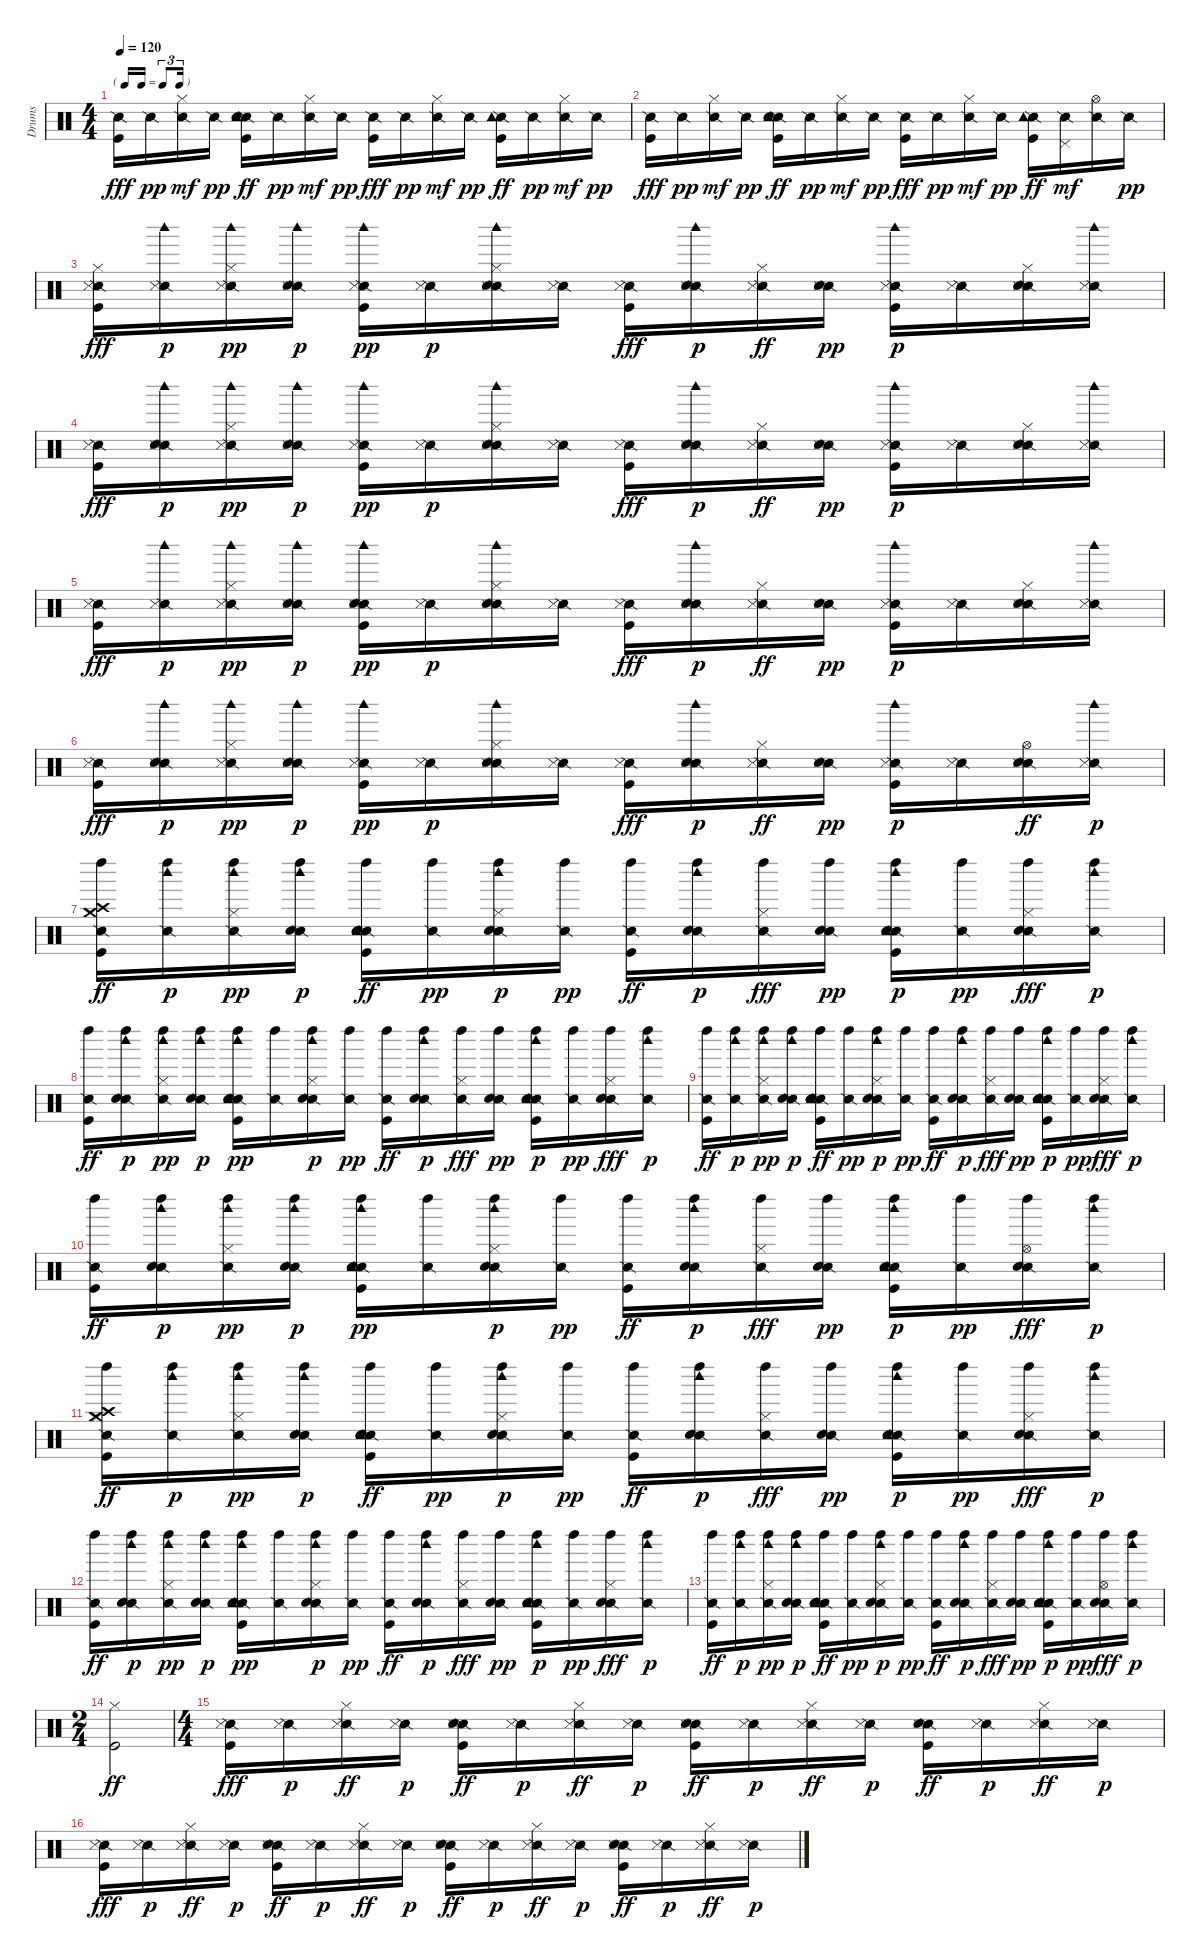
\track ("Drums" "Drums") {instrument percussion}
\staff {score}
\articulation defaults
\ts (4 4)
\tf triplet16th
\tempo 120
\clef neutral
\ks c
("Snare (side stick) 2" "Kick (hit)").16{dy fff} "Snare (side stick) 2".16{dy pp} ("Snare (side stick) 2" "Hi-Hat (closed)").16{dy mf} "Snare (side stick) 2".16{dy pp} ("Snare (side stick) 2" "Kick (hit)" "Hand Clap (hit)" "Tambourine (hit)").16{dy ff} "Snare (side stick) 2".16{dy pp} ("Snare (side stick) 2" "Hi-Hat (closed)").16{dy mf} "Snare (side stick) 2".16{dy pp} ("Snare (side stick) 2" "Kick (hit)").16{dy fff} "Snare (side stick) 2".16{dy pp} ("Snare (side stick) 2" "Hi-Hat (closed)").16{dy mf} "Snare (side stick) 2".16{dy pp} ("Snare (side stick) 2" "Kick (hit)" "Tambourine (hit)").16{dy ff} "Snare (side stick) 2".16{dy pp} ("Snare (side stick) 2" "Hi-Hat (closed)").16{dy mf} "Snare (side stick) 2".16{dy pp} |
("Snare (side stick) 2" "Kick (hit)").16{dy fff} "Snare (side stick) 2".16{dy pp} ("Snare (side stick) 2" "Hi-Hat (closed)").16{dy mf} "Snare (side stick) 2".16{dy pp} ("Snare (side stick) 2" "Kick (hit)" "Hand Clap (hit)" "Tambourine (hit)").16{dy ff} "Snare (side stick) 2".16{dy pp} ("Snare (side stick) 2" "Hi-Hat (closed)").16{dy mf} "Snare (side stick) 2".16{dy pp} ("Snare (side stick) 2" "Kick (hit)").16{dy fff} "Snare (side stick) 2".16{dy pp} ("Snare (side stick) 2" "Hi-Hat (closed)").16{dy mf} "Snare (side stick) 2".16{dy pp} ("Snare (side stick) 2" "Kick (hit)" "Tambourine (hit)").16{dy ff} ("Snare (side stick) 2" "Pedal Hi-Hat (hit)").16{dy mf} ("Snare (side stick) 2" "Hi-Hat (open)").16 "Snare (side stick) 2".16{dy pp} |
("Snare (side stick) 2" "Metronome (hit)" "Kick (hit)" "Hi-Hat (closed)").16{dy fff} ("Snare (side stick) 2" "Metronome (hit)" "Woodblock high (hit)").16{dy p} ("Snare (side stick) 2" "Metronome (hit)" "Hi-Hat (closed)" "Woodblock high (hit)").16{dy pp} ("Snare (side stick) 2" "Metronome (hit)" "Hand Clap (hit)" "Woodblock high (hit)").16{dy p} ("Snare (side stick) 2" "Metronome (hit)" "Kick (hit)" "Woodblock high (hit)").16{dy pp} ("Snare (side stick) 2" "Metronome (hit)").16{dy p} ("Snare (side stick) 2" "Metronome (hit)" "Hand Clap (hit)" "Hi-Hat (closed)" "Woodblock high (hit)").16 ("Snare (side stick) 2" "Metronome (hit)").16 ("Snare (side stick) 2" "Metronome (hit)" "Kick (hit)").16{dy fff} ("Snare (side stick) 2" "Metronome (hit)" "Hand Clap (hit)" "Woodblock high (hit)").16{dy p} ("Snare (side stick) 2" "Metronome (hit)" "Hi-Hat (closed)").16{dy ff} ("Snare (side stick) 2" "Metronome (hit)" "Hand Clap (hit)").16{dy pp} ("Snare (side stick) 2" "Metronome (hit)" "Kick (hit)" "Woodblock high (hit)").16{dy p} ("Snare (side stick) 2" "Metronome (hit)").16 ("Snare (side stick) 2" "Metronome (hit)" "Hand Clap (hit)" "Hi-Hat (closed)").16 ("Snare (side stick) 2" "Metronome (hit)" "Woodblock high (hit)").16 |
("Snare (side stick) 2" "Metronome (hit)" "Kick (hit)").16{dy fff} ("Snare (side stick) 2" "Metronome (hit)" "Hand Clap (hit)" "Woodblock high (hit)").16{dy p} ("Snare (side stick) 2" "Metronome (hit)" "Hi-Hat (closed)" "Woodblock high (hit)").16{dy pp} ("Snare (side stick) 2" "Metronome (hit)" "Hand Clap (hit)" "Woodblock high (hit)").16{dy p} ("Snare (side stick) 2" "Metronome (hit)" "Kick (hit)" "Woodblock high (hit)").16{dy pp} ("Snare (side stick) 2" "Metronome (hit)").16{dy p} ("Snare (side stick) 2" "Metronome (hit)" "Hand Clap (hit)" "Hi-Hat (closed)" "Woodblock high (hit)").16 ("Snare (side stick) 2" "Metronome (hit)").16 ("Snare (side stick) 2" "Metronome (hit)" "Kick (hit)").16{dy fff} ("Snare (side stick) 2" "Metronome (hit)" "Hand Clap (hit)" "Woodblock high (hit)").16{dy p} ("Snare (side stick) 2" "Metronome (hit)" "Hi-Hat (closed)").16{dy ff} ("Snare (side stick) 2" "Metronome (hit)" "Hand Clap (hit)").16{dy pp} ("Snare (side stick) 2" "Metronome (hit)" "Kick (hit)" "Woodblock high (hit)").16{dy p} ("Snare (side stick) 2" "Metronome (hit)").16 ("Snare (side stick) 2" "Metronome (hit)" "Hand Clap (hit)" "Hi-Hat (closed)").16 ("Snare (side stick) 2" "Metronome (hit)" "Woodblock high (hit)").16 |
("Snare (side stick) 2" "Metronome (hit)" "Kick (hit)").16{dy fff} ("Snare (side stick) 2" "Metronome (hit)" "Woodblock high (hit)").16{dy p} ("Snare (side stick) 2" "Metronome (hit)" "Hi-Hat (closed)" "Woodblock high (hit)").16{dy pp} ("Snare (side stick) 2" "Metronome (hit)" "Hand Clap (hit)" "Woodblock high (hit)").16{dy p} ("Snare (side stick) 2" "Metronome (hit)" "Kick (hit)" "Hand Clap (hit)" "Woodblock high (hit)").16{dy pp} ("Snare (side stick) 2" "Metronome (hit)").16{dy p} ("Snare (side stick) 2" "Metronome (hit)" "Hand Clap (hit)" "Hi-Hat (closed)" "Woodblock high (hit)").16 ("Snare (side stick) 2" "Metronome (hit)").16 ("Snare (side stick) 2" "Metronome (hit)" "Kick (hit)").16{dy fff} ("Snare (side stick) 2" "Metronome (hit)" "Hand Clap (hit)" "Woodblock high (hit)").16{dy p} ("Snare (side stick) 2" "Metronome (hit)" "Hi-Hat (closed)").16{dy ff} ("Snare (side stick) 2" "Metronome (hit)" "Hand Clap (hit)").16{dy pp} ("Snare (side stick) 2" "Metronome (hit)" "Kick (hit)" "Woodblock high (hit)").16{dy p} ("Snare (side stick) 2" "Metronome (hit)").16 ("Snare (side stick) 2" "Metronome (hit)" "Hand Clap (hit)" "Hi-Hat (closed)").16 ("Snare (side stick) 2" "Metronome (hit)" "Woodblock high (hit)").16 |
("Snare (side stick) 2" "Metronome (hit)" "Kick (hit)").16{dy fff} ("Snare (side stick) 2" "Metronome (hit)" "Hand Clap (hit)" "Woodblock high (hit)").16{dy p} ("Snare (side stick) 2" "Metronome (hit)" "Hi-Hat (closed)" "Woodblock high (hit)").16{dy pp} ("Snare (side stick) 2" "Metronome (hit)" "Hand Clap (hit)" "Woodblock high (hit)").16{dy p} ("Snare (side stick) 2" "Metronome (hit)" "Kick (hit)" "Woodblock high (hit)").16{dy pp} ("Snare (side stick) 2" "Metronome (hit)").16{dy p} ("Snare (side stick) 2" "Metronome (hit)" "Hand Clap (hit)" "Hi-Hat (closed)" "Woodblock high (hit)").16 ("Snare (side stick) 2" "Metronome (hit)").16 ("Snare (side stick) 2" "Metronome (hit)" "Kick (hit)").16{dy fff} ("Snare (side stick) 2" "Metronome (hit)" "Hand Clap (hit)" "Woodblock high (hit)").16{dy p} ("Snare (side stick) 2" "Metronome (hit)" "Hi-Hat (closed)").16{dy ff} ("Snare (side stick) 2" "Metronome (hit)" "Hand Clap (hit)").16{dy pp} ("Snare (side stick) 2" "Metronome (hit)" "Kick (hit)" "Woodblock high (hit)").16{dy p} ("Snare (side stick) 2" "Metronome (hit)").16 ("Snare (side stick) 2" "Metronome (hit)" "Hand Clap (hit)" "Hi-Hat (open)").16{dy ff} ("Snare (side stick) 2" "Metronome (hit)" "Woodblock high (hit)").16{dy p} |
("Snare (side stick) 2" "Kick (hit)" "Crash high (hit)" "Crash medium (hit)" "Left Maraca (hit)").16{dy ff} ("Snare (side stick) 2" "Left Maraca (hit)" "Woodblock high (hit)").16{dy p} ("Snare (side stick) 2" "Hi-Hat (closed)" "Left Maraca (hit)" "Woodblock high (hit)").16{dy pp} ("Snare (side stick) 2" "Hand Clap (hit)" "Left Maraca (hit)" "Woodblock high (hit)").16{dy p} ("Snare (side stick) 2" "Kick (hit)" "Hand Clap (hit)" "Electric Snare (hit)" "Tambourine (hit)" "Left Maraca (hit)").16{dy ff} ("Snare (side stick) 2" "Left Maraca (hit)").16{dy pp} ("Snare (side stick) 2" "Hand Clap (hit)" "Hi-Hat (closed)" "Left Maraca (hit)" "Woodblock high (hit)").16{dy p} ("Snare (side stick) 2" "Left Maraca (hit)").16{dy pp} ("Snare (side stick) 2" "Kick (hit)" "Left Maraca (hit)").16{dy ff} ("Snare (side stick) 2" "Hand Clap (hit)" "Left Maraca (hit)" "Woodblock high (hit)").16{dy p} ("Snare (side stick) 2" "Hi-Hat (closed)" "Left Maraca (hit)").16{dy fff} ("Snare (side stick) 2" "Hand Clap (hit)" "Left Maraca (hit)").16{dy pp} ("Snare (side stick) 2" "Kick (hit)" "Electric Snare (hit)" "Tambourine (hit)" "Left Maraca (hit)" "Woodblock high (hit)").16{dy p} ("Snare (side stick) 2" "Left Maraca (hit)").16{dy pp} ("Snare (side stick) 2" "Hand Clap (hit)" "Hi-Hat (closed)" "Left Maraca (hit)").16{dy fff} ("Snare (side stick) 2" "Left Maraca (hit)" "Woodblock high (hit)").16{dy p} |
("Snare (side stick) 2" "Kick (hit)" "Left Maraca (hit)").16{dy ff} ("Snare (side stick) 2" "Hand Clap (hit)" "Left Maraca (hit)" "Woodblock high (hit)").16{dy p} ("Snare (side stick) 2" "Hi-Hat (closed)" "Left Maraca (hit)" "Woodblock high (hit)").16{dy pp} ("Snare (side stick) 2" "Hand Clap (hit)" "Left Maraca (hit)" "Woodblock high (hit)").16{dy p} ("Snare (side stick) 2" "Kick (hit)" "Electric Snare (hit)" "Tambourine (hit)" "Left Maraca (hit)" "Woodblock high (hit)").16{dy pp} ("Snare (side stick) 2" "Left Maraca (hit)").16 ("Snare (side stick) 2" "Hand Clap (hit)" "Hi-Hat (closed)" "Left Maraca (hit)" "Woodblock high (hit)").16{dy p} ("Snare (side stick) 2" "Left Maraca (hit)").16{dy pp} ("Snare (side stick) 2" "Kick (hit)" "Left Maraca (hit)").16{dy ff} ("Snare (side stick) 2" "Hand Clap (hit)" "Left Maraca (hit)" "Woodblock high (hit)").16{dy p} ("Snare (side stick) 2" "Hi-Hat (closed)" "Left Maraca (hit)").16{dy fff} ("Snare (side stick) 2" "Hand Clap (hit)" "Left Maraca (hit)").16{dy pp} ("Snare (side stick) 2" "Kick (hit)" "Electric Snare (hit)" "Tambourine (hit)" "Left Maraca (hit)" "Woodblock high (hit)").16{dy p} ("Snare (side stick) 2" "Left Maraca (hit)").16{dy pp} ("Snare (side stick) 2" "Hand Clap (hit)" "Hi-Hat (closed)" "Left Maraca (hit)").16{dy fff} ("Snare (side stick) 2" "Left Maraca (hit)" "Woodblock high (hit)").16{dy p} |
("Snare (side stick) 2" "Kick (hit)" "Left Maraca (hit)").16{dy ff} ("Snare (side stick) 2" "Left Maraca (hit)" "Woodblock high (hit)").16{dy p} ("Snare (side stick) 2" "Hi-Hat (closed)" "Left Maraca (hit)" "Woodblock high (hit)").16{dy pp} ("Snare (side stick) 2" "Hand Clap (hit)" "Left Maraca (hit)" "Woodblock high (hit)").16{dy p} ("Snare (side stick) 2" "Kick (hit)" "Hand Clap (hit)" "Electric Snare (hit)" "Tambourine (hit)" "Left Maraca (hit)").16{dy ff} ("Snare (side stick) 2" "Left Maraca (hit)").16{dy pp} ("Snare (side stick) 2" "Hand Clap (hit)" "Hi-Hat (closed)" "Left Maraca (hit)" "Woodblock high (hit)").16{dy p} ("Snare (side stick) 2" "Left Maraca (hit)").16{dy pp} ("Snare (side stick) 2" "Kick (hit)" "Left Maraca (hit)").16{dy ff} ("Snare (side stick) 2" "Hand Clap (hit)" "Left Maraca (hit)" "Woodblock high (hit)").16{dy p} ("Snare (side stick) 2" "Hi-Hat (closed)" "Left Maraca (hit)").16{dy fff} ("Snare (side stick) 2" "Hand Clap (hit)" "Left Maraca (hit)").16{dy pp} ("Snare (side stick) 2" "Kick (hit)" "Electric Snare (hit)" "Tambourine (hit)" "Left Maraca (hit)" "Woodblock high (hit)").16{dy p} ("Snare (side stick) 2" "Left Maraca (hit)").16{dy pp} ("Snare (side stick) 2" "Hand Clap (hit)" "Hi-Hat (closed)" "Left Maraca (hit)").16{dy fff} ("Snare (side stick) 2" "Left Maraca (hit)" "Woodblock high (hit)").16{dy p} |
("Snare (side stick) 2" "Kick (hit)" "Left Maraca (hit)").16{dy ff} ("Snare (side stick) 2" "Hand Clap (hit)" "Left Maraca (hit)" "Woodblock high (hit)").16{dy p} ("Snare (side stick) 2" "Hi-Hat (closed)" "Left Maraca (hit)" "Woodblock high (hit)").16{dy pp} ("Snare (side stick) 2" "Hand Clap (hit)" "Left Maraca (hit)" "Woodblock high (hit)").16{dy p} ("Snare (side stick) 2" "Kick (hit)" "Electric Snare (hit)" "Tambourine (hit)" "Left Maraca (hit)" "Woodblock high (hit)").16{dy pp} ("Snare (side stick) 2" "Left Maraca (hit)").16 ("Snare (side stick) 2" "Hand Clap (hit)" "Hi-Hat (closed)" "Left Maraca (hit)" "Woodblock high (hit)").16{dy p} ("Snare (side stick) 2" "Left Maraca (hit)").16{dy pp} ("Snare (side stick) 2" "Kick (hit)" "Left Maraca (hit)").16{dy ff} ("Snare (side stick) 2" "Hand Clap (hit)" "Left Maraca (hit)" "Woodblock high (hit)").16{dy p} ("Snare (side stick) 2" "Hi-Hat (closed)" "Left Maraca (hit)").16{dy fff} ("Snare (side stick) 2" "Hand Clap (hit)" "Left Maraca (hit)").16{dy pp} ("Snare (side stick) 2" "Kick (hit)" "Electric Snare (hit)" "Tambourine (hit)" "Left Maraca (hit)" "Woodblock high (hit)").16{dy p} ("Snare (side stick) 2" "Left Maraca (hit)").16{dy pp} ("Snare (side stick) 2" "Hand Clap (hit)" "Hi-Hat (open)" "Left Maraca (hit)").16{dy fff} ("Snare (side stick) 2" "Left Maraca (hit)" "Woodblock high (hit)").16{dy p} |
("Snare (side stick) 2" "Kick (hit)" "Hi-Hat (closed)" "Crash high (hit)" "Crash medium (hit)" "Left Maraca (hit)").16{dy ff} ("Snare (side stick) 2" "Left Maraca (hit)" "Woodblock high (hit)").16{dy p} ("Snare (side stick) 2" "Hi-Hat (closed)" "Left Maraca (hit)" "Woodblock high (hit)").16{dy pp} ("Snare (side stick) 2" "Hand Clap (hit)" "Left Maraca (hit)" "Woodblock high (hit)").16{dy p} ("Snare (side stick) 2" "Kick (hit)" "Hand Clap (hit)" "Electric Snare (hit)" "Tambourine (hit)" "Left Maraca (hit)").16{dy ff} ("Snare (side stick) 2" "Left Maraca (hit)").16{dy pp} ("Snare (side stick) 2" "Hand Clap (hit)" "Hi-Hat (closed)" "Left Maraca (hit)" "Woodblock high (hit)").16{dy p} ("Snare (side stick) 2" "Left Maraca (hit)").16{dy pp} ("Snare (side stick) 2" "Kick (hit)" "Left Maraca (hit)").16{dy ff} ("Snare (side stick) 2" "Hand Clap (hit)" "Left Maraca (hit)" "Woodblock high (hit)").16{dy p} ("Snare (side stick) 2" "Hi-Hat (closed)" "Left Maraca (hit)").16{dy fff} ("Snare (side stick) 2" "Hand Clap (hit)" "Left Maraca (hit)").16{dy pp} ("Snare (side stick) 2" "Kick (hit)" "Electric Snare (hit)" "Tambourine (hit)" "Left Maraca (hit)" "Woodblock high (hit)").16{dy p} ("Snare (side stick) 2" "Left Maraca (hit)").16{dy pp} ("Snare (side stick) 2" "Hand Clap (hit)" "Hi-Hat (closed)" "Left Maraca (hit)").16{dy fff} ("Snare (side stick) 2" "Left Maraca (hit)" "Woodblock high (hit)").16{dy p} |
("Snare (side stick) 2" "Kick (hit)" "Left Maraca (hit)").16{dy ff} ("Snare (side stick) 2" "Hand Clap (hit)" "Left Maraca (hit)" "Woodblock high (hit)").16{dy p} ("Snare (side stick) 2" "Hi-Hat (closed)" "Left Maraca (hit)" "Woodblock high (hit)").16{dy pp} ("Snare (side stick) 2" "Hand Clap (hit)" "Left Maraca (hit)" "Woodblock high (hit)").16{dy p} ("Snare (side stick) 2" "Kick (hit)" "Electric Snare (hit)" "Tambourine (hit)" "Left Maraca (hit)" "Woodblock high (hit)").16{dy pp} ("Snare (side stick) 2" "Left Maraca (hit)").16 ("Snare (side stick) 2" "Hand Clap (hit)" "Hi-Hat (closed)" "Left Maraca (hit)" "Woodblock high (hit)").16{dy p} ("Snare (side stick) 2" "Left Maraca (hit)").16{dy pp} ("Snare (side stick) 2" "Kick (hit)" "Left Maraca (hit)").16{dy ff} ("Snare (side stick) 2" "Hand Clap (hit)" "Left Maraca (hit)" "Woodblock high (hit)").16{dy p} ("Snare (side stick) 2" "Hi-Hat (closed)" "Left Maraca (hit)").16{dy fff} ("Snare (side stick) 2" "Hand Clap (hit)" "Left Maraca (hit)").16{dy pp} ("Snare (side stick) 2" "Kick (hit)" "Electric Snare (hit)" "Tambourine (hit)" "Left Maraca (hit)" "Woodblock high (hit)").16{dy p} ("Snare (side stick) 2" "Left Maraca (hit)").16{dy pp} ("Snare (side stick) 2" "Hand Clap (hit)" "Hi-Hat (closed)" "Left Maraca (hit)").16{dy fff} ("Snare (side stick) 2" "Left Maraca (hit)" "Woodblock high (hit)").16{dy p} |
("Snare (side stick) 2" "Kick (hit)" "Left Maraca (hit)").16{dy ff} ("Snare (side stick) 2" "Left Maraca (hit)" "Woodblock high (hit)").16{dy p} ("Snare (side stick) 2" "Hi-Hat (closed)" "Left Maraca (hit)" "Woodblock high (hit)").16{dy pp} ("Snare (side stick) 2" "Hand Clap (hit)" "Left Maraca (hit)" "Woodblock high (hit)").16{dy p} ("Snare (side stick) 2" "Kick (hit)" "Hand Clap (hit)" "Electric Snare (hit)" "Tambourine (hit)" "Left Maraca (hit)").16{dy ff} ("Snare (side stick) 2" "Left Maraca (hit)").16{dy pp} ("Snare (side stick) 2" "Hand Clap (hit)" "Hi-Hat (closed)" "Left Maraca (hit)" "Woodblock high (hit)").16{dy p} ("Snare (side stick) 2" "Left Maraca (hit)").16{dy pp} ("Snare (side stick) 2" "Kick (hit)" "Left Maraca (hit)").16{dy ff} ("Snare (side stick) 2" "Hand Clap (hit)" "Left Maraca (hit)" "Woodblock high (hit)").16{dy p} ("Snare (side stick) 2" "Hi-Hat (closed)" "Left Maraca (hit)").16{dy fff} ("Snare (side stick) 2" "Hand Clap (hit)" "Left Maraca (hit)").16{dy pp} ("Snare (side stick) 2" "Kick (hit)" "Electric Snare (hit)" "Tambourine (hit)" "Left Maraca (hit)" "Woodblock high (hit)").16{dy p} ("Snare (side stick) 2" "Left Maraca (hit)").16{dy pp} ("Snare (side stick) 2" "Hand Clap (hit)" "Hi-Hat (open)" "Left Maraca (hit)").16{dy fff} ("Snare (side stick) 2" "Left Maraca (hit)" "Woodblock high (hit)").16{dy p} |
\ts (2 4)
("Kick (hit)" "Hi-Hat (closed)").2{dy ff} |
\ts (4 4)
("Snare (side stick) 2" "Metronome (hit)" "Kick (hit)").16{dy fff} ("Snare (side stick) 2" "Metronome (hit)").16{dy p} ("Snare (side stick) 2" "Metronome (hit)" "Hi-Hat (closed)").16{dy ff} ("Snare (side stick) 2" "Metronome (hit)").16{dy p} ("Snare (side stick) 2" "Metronome (hit)" "Kick (hit)" "Hand Clap (hit)").16{dy ff} ("Snare (side stick) 2" "Metronome (hit)").16{dy p} ("Snare (side stick) 2" "Metronome (hit)" "Hi-Hat (closed)").16{dy ff} ("Snare (side stick) 2" "Metronome (hit)").16{dy p} ("Snare (side stick) 2" "Metronome (hit)" "Kick (hit)" "Hand Clap (hit)").16{dy ff} ("Snare (side stick) 2" "Metronome (hit)").16{dy p} ("Snare (side stick) 2" "Metronome (hit)" "Hi-Hat (closed)").16{dy ff} ("Snare (side stick) 2" "Metronome (hit)").16{dy p} ("Snare (side stick) 2" "Metronome (hit)" "Kick (hit)" "Hand Clap (hit)").16{dy ff} ("Snare (side stick) 2" "Metronome (hit)").16{dy p} ("Snare (side stick) 2" "Metronome (hit)" "Hi-Hat (closed)").16{dy ff} ("Snare (side stick) 2" "Metronome (hit)").16{dy p} |
("Snare (side stick) 2" "Metronome (hit)" "Kick (hit)").16{dy fff} ("Snare (side stick) 2" "Metronome (hit)").16{dy p} ("Snare (side stick) 2" "Metronome (hit)" "Hi-Hat (closed)").16{dy ff} ("Snare (side stick) 2" "Metronome (hit)").16{dy p} ("Snare (side stick) 2" "Metronome (hit)" "Kick (hit)" "Hand Clap (hit)").16{dy ff} ("Snare (side stick) 2" "Metronome (hit)").16{dy p} ("Snare (side stick) 2" "Metronome (hit)" "Hi-Hat (closed)").16{dy ff} ("Snare (side stick) 2" "Metronome (hit)").16{dy p} ("Snare (side stick) 2" "Metronome (hit)" "Kick (hit)" "Hand Clap (hit)").16{dy ff} ("Snare (side stick) 2" "Metronome (hit)").16{dy p} ("Snare (side stick) 2" "Metronome (hit)" "Hi-Hat (closed)").16{dy ff} ("Snare (side stick) 2" "Metronome (hit)").16{dy p} ("Snare (side stick) 2" "Metronome (hit)" "Kick (hit)" "Hand Clap (hit)").16{dy ff} ("Snare (side stick) 2" "Metronome (hit)").16{dy p} ("Snare (side stick) 2" "Metronome (hit)" "Hi-Hat (closed)").16{dy ff} ("Snare (side stick) 2" "Metronome (hit)").16{dy p}
